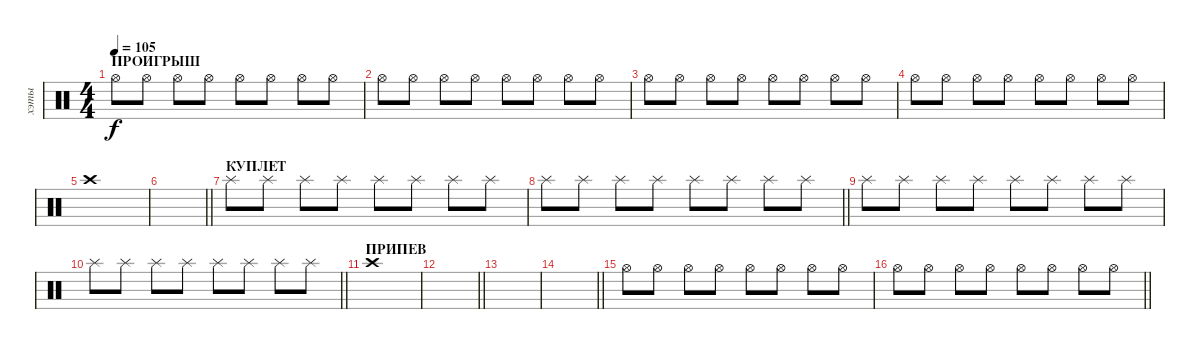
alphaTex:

\track ("хэты" "хэты") {instrument percussion}
\staff {score}
\articulation defaults
\ts (4 4)
\section ("" "ПРОИГРЫШ")
\tempo 105
\clef neutral
\ks c "Hi-Hat (open)".8{dy f} "Hi-Hat (open)".8 "Hi-Hat (open)".8 "Hi-Hat (open)".8 "Hi-Hat (open)".8 "Hi-Hat (open)".8 "Hi-Hat (open)".8 "Hi-Hat (open)".8
|
"Hi-Hat (open)".8 "Hi-Hat (open)".8 "Hi-Hat (open)".8 "Hi-Hat (open)".8 "Hi-Hat (open)".8 "Hi-Hat (open)".8 "Hi-Hat (open)".8 "Hi-Hat (open)".8 |
"Hi-Hat (open)".8 "Hi-Hat (open)".8 "Hi-Hat (open)".8 "Hi-Hat (open)".8 "Hi-Hat (open)".8 "Hi-Hat (open)".8 "Hi-Hat (open)".8 "Hi-Hat (open)".8 |
"Hi-Hat (open)".8 "Hi-Hat (open)".8 "Hi-Hat (open)".8 "Hi-Hat (open)".8 "Hi-Hat (open)".8 "Hi-Hat (open)".8 "Hi-Hat (open)".8 "Hi-Hat (open)".8 |
"Crash high (hit)".1 |
\barLineRight lightlight
|
\section ("" "КУПЛЕТ")
"Splash (hit)".8 "Splash (hit)".8 "Splash (hit)".8 "Splash (hit)".8 "Splash (hit)".8 "Splash (hit)".8 "Splash (hit)".8 "Splash (hit)".8 |
\barLineRight lightlight "Splash (hit)".8 "Splash (hit)".8 "Splash (hit)".8 "Splash (hit)".8 "Splash (hit)".8 "Splash (hit)".8 "Splash (hit)".8 "Splash (hit)".8
|
"Splash (hit)".8 "Splash (hit)".8 "Splash (hit)".8 "Splash (hit)".8 "Splash (hit)".8 "Splash (hit)".8 "Splash (hit)".8 "Splash (hit)".8 |
\barLineRight lightlight "Splash (hit)".8 "Splash (hit)".8 "Splash (hit)".8 "Splash (hit)".8 "Splash (hit)".8 "Splash (hit)".8 "Splash (hit)".8 "Splash (hit)".8
|
\section ("" "ПРИПЕВ")
"Crash high (hit)".1 |
\barLineRight lightlight
|
|
\barLineRight lightlight
|
"Hi-Hat (open)".8 "Hi-Hat (open)".8 "Hi-Hat (open)".8 "Hi-Hat (open)".8 "Hi-Hat (open)".8 "Hi-Hat (open)".8 "Hi-Hat (open)".8 "Hi-Hat (open)".8 |
\barLineRight lightlight "Hi-Hat (open)".8 "Hi-Hat (open)".8 "Hi-Hat (open)".8 "Hi-Hat (open)".8 "Hi-Hat (open)".8 "Hi-Hat (open)".8 "Hi-Hat (open)".8 "Hi-Hat (open)".8
